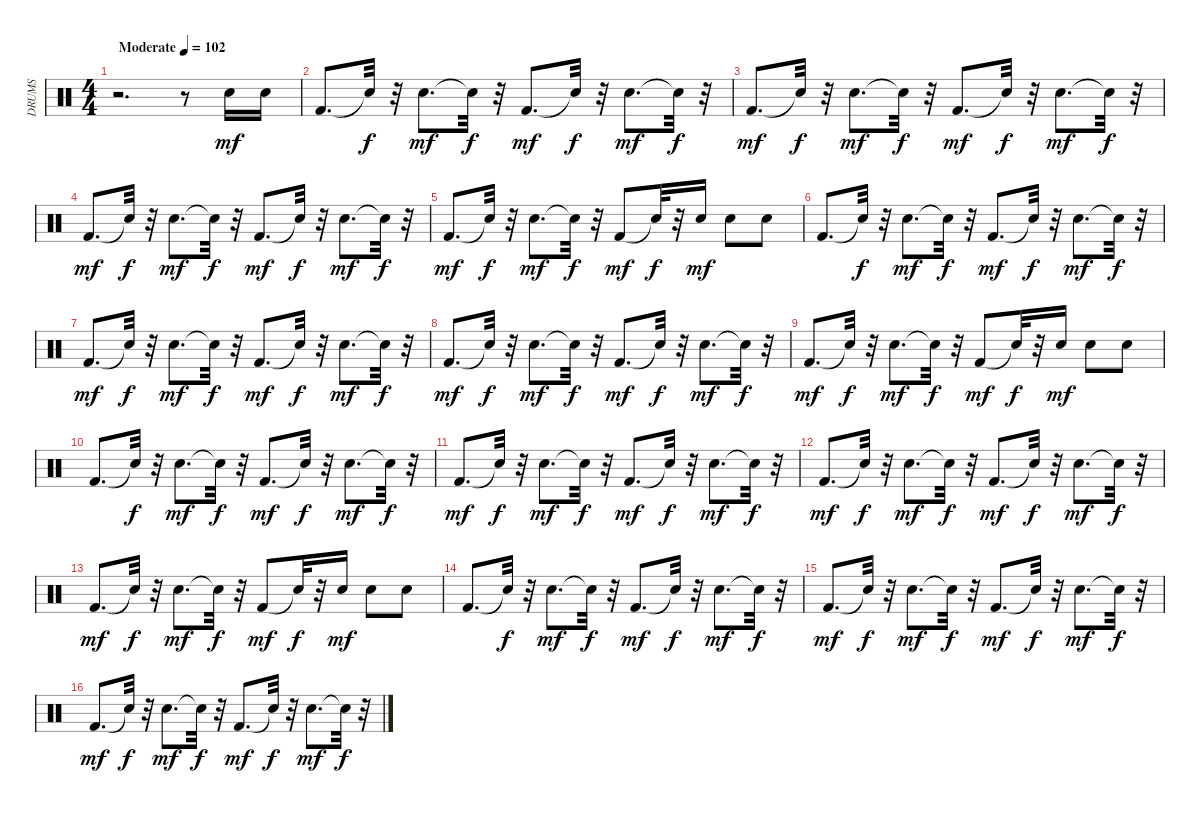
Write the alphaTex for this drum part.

\track ("DRUMS" "DRUMS") {instrument percussion}
\staff {score}
\articulation defaults
\ts (4 4)
\tempo (102 "Moderate")
\clef neutral
\ks c
r.2{d dy mf} r.8 "Snare (hit) 2".16 "Snare (hit) 2".16 |
"Kick (hit) 2".8{d} "Snare (hit)"{t}.32{dy f} r.32 "Snare (hit) 2".8{d dy mf} "Snare (hit)"{t}.32{dy f} r.32 "Kick (hit) 2".8{d dy mf} "Snare (hit)"{t}.32{dy f} r.32 "Snare (hit) 2".8{d dy mf} "Snare (hit)"{t}.32{dy f} r.32 |
"Kick (hit) 2".8{d dy mf} "Snare (hit)"{t}.32{dy f} r.32 "Snare (hit) 2".8{d dy mf} "Snare (hit)"{t}.32{dy f} r.32 "Kick (hit) 2".8{d dy mf} "Snare (hit)"{t}.32{dy f} r.32 "Snare (hit) 2".8{d dy mf} "Snare (hit)"{t}.32{dy f} r.32 |
"Kick (hit) 2".8{d dy mf} "Snare (hit)"{t}.32{dy f} r.32 "Snare (hit) 2".8{d dy mf} "Snare (hit)"{t}.32{dy f} r.32 "Kick (hit) 2".8{d dy mf} "Snare (hit)"{t}.32{dy f} r.32 "Snare (hit) 2".8{d dy mf} "Snare (hit)"{t}.32{dy f} r.32 |
"Kick (hit) 2".8{d dy mf} "Snare (hit)"{t}.32{dy f} r.32 "Snare (hit) 2".8{d dy mf} "Snare (hit)"{t}.32{dy f} r.32 "Kick (hit) 2".8{dy mf} "Snare (hit)"{t}.32{dy f} r.32 "Snare (hit) 2".16{dy mf} "Snare (hit) 2".8 "Snare (hit) 2".8 |
"Kick (hit) 2".8{d} "Snare (hit)"{t}.32{dy f} r.32 "Snare (hit) 2".8{d dy mf} "Snare (hit)"{t}.32{dy f} r.32 "Kick (hit) 2".8{d dy mf} "Snare (hit)"{t}.32{dy f} r.32 "Snare (hit) 2".8{d dy mf} "Snare (hit)"{t}.32{dy f} r.32 |
"Kick (hit) 2".8{d dy mf} "Snare (hit)"{t}.32{dy f} r.32 "Snare (hit) 2".8{d dy mf} "Snare (hit)"{t}.32{dy f} r.32 "Kick (hit) 2".8{d dy mf} "Snare (hit)"{t}.32{dy f} r.32 "Snare (hit) 2".8{d dy mf} "Snare (hit)"{t}.32{dy f} r.32 |
"Kick (hit) 2".8{d dy mf} "Snare (hit)"{t}.32{dy f} r.32 "Snare (hit) 2".8{d dy mf} "Snare (hit)"{t}.32{dy f} r.32 "Kick (hit) 2".8{d dy mf} "Snare (hit)"{t}.32{dy f} r.32 "Snare (hit) 2".8{d dy mf} "Snare (hit)"{t}.32{dy f} r.32 |
"Kick (hit) 2".8{d dy mf} "Snare (hit)"{t}.32{dy f} r.32 "Snare (hit) 2".8{d dy mf} "Snare (hit)"{t}.32{dy f} r.32 "Kick (hit) 2".8{dy mf} "Snare (hit)"{t}.32{dy f} r.32 "Snare (hit) 2".16{dy mf} "Snare (hit) 2".8 "Snare (hit) 2".8 |
"Kick (hit) 2".8{d} "Snare (hit)"{t}.32{dy f} r.32 "Snare (hit) 2".8{d dy mf} "Snare (hit)"{t}.32{dy f} r.32 "Kick (hit) 2".8{d dy mf} "Snare (hit)"{t}.32{dy f} r.32 "Snare (hit) 2".8{d dy mf} "Snare (hit)"{t}.32{dy f} r.32 |
"Kick (hit) 2".8{d dy mf} "Snare (hit)"{t}.32{dy f} r.32 "Snare (hit) 2".8{d dy mf} "Snare (hit)"{t}.32{dy f} r.32 "Kick (hit) 2".8{d dy mf} "Snare (hit)"{t}.32{dy f} r.32 "Snare (hit) 2".8{d dy mf} "Snare (hit)"{t}.32{dy f} r.32 |
"Kick (hit) 2".8{d dy mf} "Snare (hit)"{t}.32{dy f} r.32 "Snare (hit) 2".8{d dy mf} "Snare (hit)"{t}.32{dy f} r.32 "Kick (hit) 2".8{d dy mf} "Snare (hit)"{t}.32{dy f} r.32 "Snare (hit) 2".8{d dy mf} "Snare (hit)"{t}.32{dy f} r.32 |
"Kick (hit) 2".8{d dy mf} "Snare (hit)"{t}.32{dy f} r.32 "Snare (hit) 2".8{d dy mf} "Snare (hit)"{t}.32{dy f} r.32 "Kick (hit) 2".8{dy mf} "Snare (hit)"{t}.32{dy f} r.32 "Snare (hit) 2".16{dy mf} "Snare (hit) 2".8 "Snare (hit) 2".8 |
"Kick (hit) 2".8{d} "Snare (hit)"{t}.32{dy f} r.32 "Snare (hit) 2".8{d dy mf} "Snare (hit)"{t}.32{dy f} r.32 "Kick (hit) 2".8{d dy mf} "Snare (hit)"{t}.32{dy f} r.32 "Snare (hit) 2".8{d dy mf} "Snare (hit)"{t}.32{dy f} r.32 |
"Kick (hit) 2".8{d dy mf} "Snare (hit)"{t}.32{dy f} r.32 "Snare (hit) 2".8{d dy mf} "Snare (hit)"{t}.32{dy f} r.32 "Kick (hit) 2".8{d dy mf} "Snare (hit)"{t}.32{dy f} r.32 "Snare (hit) 2".8{d dy mf} "Snare (hit)"{t}.32{dy f} r.32 |
"Kick (hit) 2".8{d dy mf} "Snare (hit)"{t}.32{dy f} r.32 "Snare (hit) 2".8{d dy mf} "Snare (hit)"{t}.32{dy f} r.32 "Kick (hit) 2".8{d dy mf} "Snare (hit)"{t}.32{dy f} r.32 "Snare (hit) 2".8{d dy mf} "Snare (hit)"{t}.32{dy f} r.32
